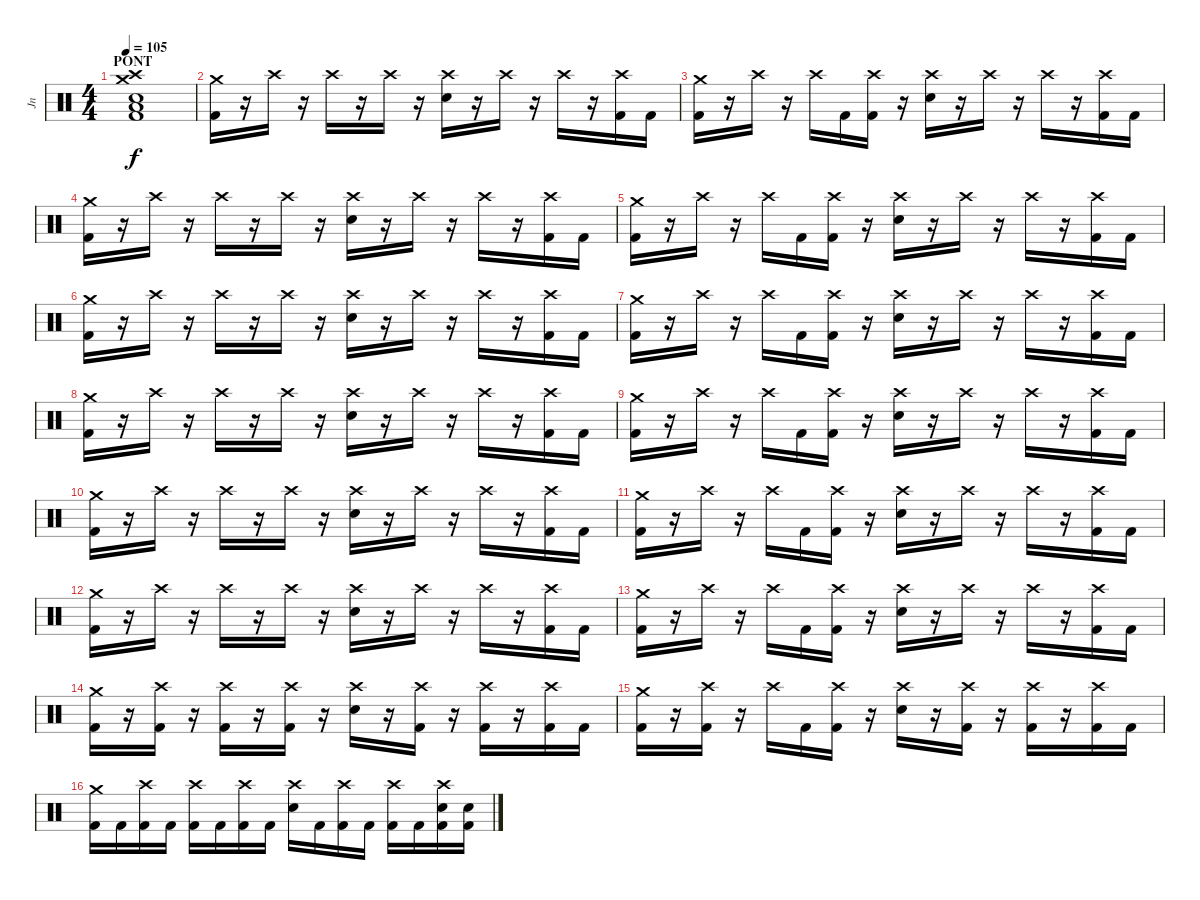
\track ("Jn" "Jn") {instrument percussion}
\staff {score}
\articulation defaults
\ts (4 4)
\section ("" "PONT")
\tempo 105
\clef neutral
\ks c
("Crash medium (hit)" "Crash high (hit)" "Kick (hit) 2" "Low Tom (hit)" "Electric Snare (hit)").1{dy f} |
("Crash medium (hit)" "Kick (hit) 2").16 r.16 "Crash high (hit)".16 r.16 "Crash high (hit)".16 r.16 "Crash high (hit)".16 r.16 ("Crash high (hit)" "Electric Snare (hit)").16 r.16 "Crash high (hit)".16 r.16 "Crash high (hit)".16 r.16 ("Crash high (hit)" "Kick (hit) 2").16 "Kick (hit) 2".16 |
("Crash medium (hit)" "Kick (hit) 2").16 r.16 "Crash high (hit)".16 r.16 "Crash high (hit)".16 "Kick (hit) 2".16 ("Crash high (hit)" "Kick (hit) 2").16 r.16 ("Crash high (hit)" "Electric Snare (hit)").16 r.16 "Crash high (hit)".16 r.16 "Crash high (hit)".16 r.16 ("Crash high (hit)" "Kick (hit) 2").16 "Kick (hit) 2".16 |
("Crash medium (hit)" "Kick (hit) 2").16 r.16 "Crash high (hit)".16 r.16 "Crash high (hit)".16 r.16 "Crash high (hit)".16 r.16 ("Crash high (hit)" "Electric Snare (hit)").16 r.16 "Crash high (hit)".16 r.16 "Crash high (hit)".16 r.16 ("Crash high (hit)" "Kick (hit) 2").16 "Kick (hit) 2".16 |
("Crash medium (hit)" "Kick (hit) 2").16 r.16 "Crash high (hit)".16 r.16 "Crash high (hit)".16 "Kick (hit) 2".16 ("Crash high (hit)" "Kick (hit) 2").16 r.16 ("Crash high (hit)" "Electric Snare (hit)").16 r.16 "Crash high (hit)".16 r.16 "Crash high (hit)".16 r.16 ("Crash high (hit)" "Kick (hit) 2").16 "Kick (hit) 2".16 |
("Crash medium (hit)" "Kick (hit) 2").16 r.16 "Crash high (hit)".16 r.16 "Crash high (hit)".16 r.16 "Crash high (hit)".16 r.16 ("Crash high (hit)" "Electric Snare (hit)").16 r.16 "Crash high (hit)".16 r.16 "Crash high (hit)".16 r.16 ("Crash high (hit)" "Kick (hit) 2").16 "Kick (hit) 2".16 |
("Crash medium (hit)" "Kick (hit) 2").16 r.16 "Crash high (hit)".16 r.16 "Crash high (hit)".16 "Kick (hit) 2".16 ("Crash high (hit)" "Kick (hit) 2").16 r.16 ("Crash high (hit)" "Electric Snare (hit)").16 r.16 "Crash high (hit)".16 r.16 "Crash high (hit)".16 r.16 ("Crash high (hit)" "Kick (hit) 2").16 "Kick (hit) 2".16 |
("Crash medium (hit)" "Kick (hit) 2").16 r.16 "Crash high (hit)".16 r.16 "Crash high (hit)".16 r.16 "Crash high (hit)".16 r.16 ("Crash high (hit)" "Electric Snare (hit)").16 r.16 "Crash high (hit)".16 r.16 "Crash high (hit)".16 r.16 ("Crash high (hit)" "Kick (hit) 2").16 "Kick (hit) 2".16 |
("Crash medium (hit)" "Kick (hit) 2").16 r.16 "Crash high (hit)".16 r.16 "Crash high (hit)".16 "Kick (hit) 2".16 ("Crash high (hit)" "Kick (hit) 2").16 r.16 ("Crash high (hit)" "Electric Snare (hit)").16 r.16 "Crash high (hit)".16 r.16 "Crash high (hit)".16 r.16 ("Crash high (hit)" "Kick (hit) 2").16 "Kick (hit) 2".16 |
("Crash medium (hit)" "Kick (hit) 2").16 r.16 "Crash high (hit)".16 r.16 "Crash high (hit)".16 r.16 "Crash high (hit)".16 r.16 ("Crash high (hit)" "Electric Snare (hit)").16 r.16 "Crash high (hit)".16 r.16 "Crash high (hit)".16 r.16 ("Crash high (hit)" "Kick (hit) 2").16 "Kick (hit) 2".16 |
("Crash medium (hit)" "Kick (hit) 2").16 r.16 "Crash high (hit)".16 r.16 "Crash high (hit)".16 "Kick (hit) 2".16 ("Crash high (hit)" "Kick (hit) 2").16 r.16 ("Crash high (hit)" "Electric Snare (hit)").16 r.16 "Crash high (hit)".16 r.16 "Crash high (hit)".16 r.16 ("Crash high (hit)" "Kick (hit) 2").16 "Kick (hit) 2".16 |
("Crash medium (hit)" "Kick (hit) 2").16 r.16 "Crash high (hit)".16 r.16 "Crash high (hit)".16 r.16 "Crash high (hit)".16 r.16 ("Crash high (hit)" "Electric Snare (hit)").16 r.16 "Crash high (hit)".16 r.16 "Crash high (hit)".16 r.16 ("Crash high (hit)" "Kick (hit) 2").16 "Kick (hit) 2".16 |
("Crash medium (hit)" "Kick (hit) 2").16 r.16 "Crash high (hit)".16 r.16 "Crash high (hit)".16 "Kick (hit) 2".16 ("Crash high (hit)" "Kick (hit) 2").16 r.16 ("Crash high (hit)" "Electric Snare (hit)").16 r.16 "Crash high (hit)".16 r.16 "Crash high (hit)".16 r.16 ("Crash high (hit)" "Kick (hit) 2").16 "Kick (hit) 2".16 |
("Crash medium (hit)" "Kick (hit) 2").16 r.16 ("Crash high (hit)" "Kick (hit) 2").16 r.16 ("Crash high (hit)" "Kick (hit) 2").16 r.16 ("Crash high (hit)" "Kick (hit) 2").16 r.16 ("Crash high (hit)" "Electric Snare (hit)").16 r.16 ("Crash high (hit)" "Kick (hit) 2").16 r.16 ("Crash high (hit)" "Kick (hit) 2").16 r.16 ("Crash high (hit)" "Kick (hit) 2").16 "Kick (hit) 2".16 |
("Crash medium (hit)" "Kick (hit) 2").16 r.16 ("Crash high (hit)" "Kick (hit) 2").16 r.16 "Crash high (hit)".16 "Kick (hit) 2".16 ("Crash high (hit)" "Kick (hit) 2").16 r.16 ("Crash high (hit)" "Electric Snare (hit)").16 r.16 ("Crash high (hit)" "Kick (hit) 2").16 r.16 ("Crash high (hit)" "Kick (hit) 2").16 r.16 ("Crash high (hit)" "Kick (hit) 2").16 "Kick (hit) 2".16 |
("Crash medium (hit)" "Kick (hit) 2").16 "Kick (hit) 2".16 ("Crash high (hit)" "Kick (hit) 2").16 "Kick (hit) 2".16 ("Crash high (hit)" "Kick (hit) 2").16 "Kick (hit) 2".16 ("Crash high (hit)" "Kick (hit) 2").16 "Kick (hit) 2".16 ("Crash high (hit)" "Electric Snare (hit)").16 "Kick (hit) 2".16 ("Crash high (hit)" "Kick (hit) 2").16 "Kick (hit) 2".16 ("Crash high (hit)" "Kick (hit) 2").16 "Kick (hit) 2".16 ("Crash high (hit)" "Electric Snare (hit)" "Kick (hit) 2").16 ("Electric Snare (hit)" "Kick (hit) 2").16
